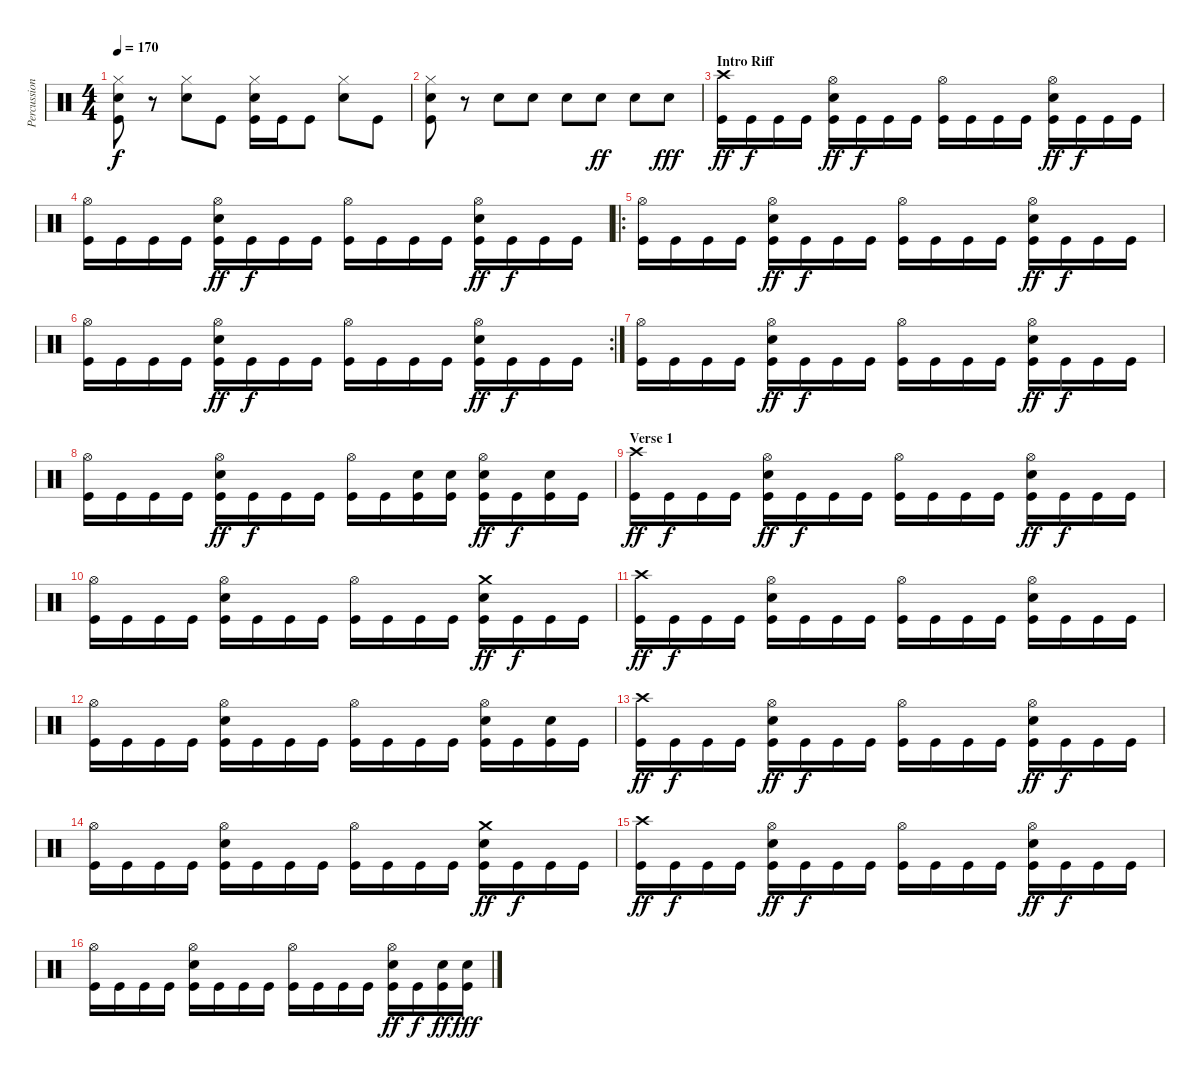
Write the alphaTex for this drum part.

\track ("Percussion" "Percussion") {instrument percussion}
\staff {score}
\articulation defaults
\ts (4 4)
\tempo 170
\clef neutral
\ks c
("Hi-Hat (closed)" "Snare (hit) 2" "Kick (hit)").8{dy f} r.8 ("Hi-Hat (closed)" "Snare (hit) 2").8 "Kick (hit)".8 ("Hi-Hat (closed)" "Snare (hit) 2" "Kick (hit)").16 "Kick (hit)".16 "Kick (hit)".8 ("Hi-Hat (closed)" "Snare (hit) 2").8 "Kick (hit)".8 |
("Hi-Hat (closed)" "Snare (hit) 2" "Kick (hit)").8 r.8 "Snare (hit) 2".8 "Snare (hit) 2".8 "Snare (hit) 2".8 "Snare (hit) 2".8{dy ff} "Snare (hit) 2".8 "Snare (hit) 2".8{dy fff} |
\section ("" "Intro Riff")
("Crash high (hit)" "Kick (hit)").16{dy ff} "Kick (hit)".16{dy f} "Kick (hit)".16 "Kick (hit)".16 ("Hi-Hat (open)" "Snare (hit) 2" "Kick (hit)").16{dy ff} "Kick (hit)".16{dy f} "Kick (hit)".16 "Kick (hit)".16 ("Hi-Hat (open)" "Kick (hit)").16 "Kick (hit)".16 "Kick (hit)".16 "Kick (hit)".16 ("Hi-Hat (open)" "Snare (hit) 2" "Kick (hit)").16{dy ff} "Kick (hit)".16{dy f} "Kick (hit)".16 "Kick (hit)".16 |
("Hi-Hat (open)" "Kick (hit)").16 "Kick (hit)".16 "Kick (hit)".16 "Kick (hit)".16 ("Hi-Hat (open)" "Snare (hit) 2" "Kick (hit)").16{dy ff} "Kick (hit)".16{dy f} "Kick (hit)".16 "Kick (hit)".16 ("Hi-Hat (open)" "Kick (hit)").16 "Kick (hit)".16 "Kick (hit)".16 "Kick (hit)".16 ("Hi-Hat (open)" "Snare (hit) 2" "Kick (hit)").16{dy ff} "Kick (hit)".16{dy f} "Kick (hit)".16 "Kick (hit)".16 |
\ro
("Hi-Hat (open)" "Kick (hit)").16 "Kick (hit)".16 "Kick (hit)".16 "Kick (hit)".16 ("Hi-Hat (open)" "Snare (hit) 2" "Kick (hit)").16{dy ff} "Kick (hit)".16{dy f} "Kick (hit)".16 "Kick (hit)".16 ("Hi-Hat (open)" "Kick (hit)").16 "Kick (hit)".16 "Kick (hit)".16 "Kick (hit)".16 ("Hi-Hat (open)" "Snare (hit) 2" "Kick (hit)").16{dy ff} "Kick (hit)".16{dy f} "Kick (hit)".16 "Kick (hit)".16 |
\rc 2
("Hi-Hat (open)" "Kick (hit)").16 "Kick (hit)".16 "Kick (hit)".16 "Kick (hit)".16 ("Hi-Hat (open)" "Snare (hit) 2" "Kick (hit)").16{dy ff} "Kick (hit)".16{dy f} "Kick (hit)".16 "Kick (hit)".16 ("Hi-Hat (open)" "Kick (hit)").16 "Kick (hit)".16 "Kick (hit)".16 "Kick (hit)".16 ("Hi-Hat (open)" "Snare (hit) 2" "Kick (hit)").16{dy ff} "Kick (hit)".16{dy f} "Kick (hit)".16 "Kick (hit)".16 |
("Hi-Hat (open)" "Kick (hit)").16 "Kick (hit)".16 "Kick (hit)".16 "Kick (hit)".16 ("Hi-Hat (open)" "Snare (hit) 2" "Kick (hit)").16{dy ff} "Kick (hit)".16{dy f} "Kick (hit)".16 "Kick (hit)".16 ("Hi-Hat (open)" "Kick (hit)").16 "Kick (hit)".16 "Kick (hit)".16 "Kick (hit)".16 ("Hi-Hat (open)" "Snare (hit) 2" "Kick (hit)").16{dy ff} "Kick (hit)".16{dy f} "Kick (hit)".16 "Kick (hit)".16 |
("Hi-Hat (open)" "Kick (hit)").16 "Kick (hit)".16 "Kick (hit)".16 "Kick (hit)".16 ("Hi-Hat (open)" "Snare (hit) 2" "Kick (hit)").16{dy ff} "Kick (hit)".16{dy f} "Kick (hit)".16 "Kick (hit)".16 ("Hi-Hat (open)" "Kick (hit)").16 "Kick (hit)".16 ("Snare (hit) 2" "Kick (hit)").16 ("Snare (hit) 2" "Kick (hit)").16 ("Hi-Hat (open)" "Snare (hit) 2" "Kick (hit)").16{dy ff} "Kick (hit)".16{dy f} ("Snare (hit) 2" "Kick (hit)").16 "Kick (hit)".16 |
\section ("" "Verse 1")
("Crash high (hit)" "Kick (hit)").16{dy ff} "Kick (hit)".16{dy f} "Kick (hit)".16 "Kick (hit)".16 ("Hi-Hat (open)" "Snare (hit) 2" "Kick (hit)").16{dy ff} "Kick (hit)".16{dy f} "Kick (hit)".16 "Kick (hit)".16 ("Hi-Hat (open)" "Kick (hit)").16 "Kick (hit)".16 "Kick (hit)".16 "Kick (hit)".16 ("Hi-Hat (open)" "Snare (hit) 2" "Kick (hit)").16{dy ff} "Kick (hit)".16{dy f} "Kick (hit)".16 "Kick (hit)".16 |
("Hi-Hat (open)" "Kick (hit)").16 "Kick (hit)".16 "Kick (hit)".16 "Kick (hit)".16 ("Hi-Hat (open)" "Snare (hit) 2" "Kick (hit)").16 "Kick (hit)".16 "Kick (hit)".16 "Kick (hit)".16 ("Hi-Hat (open)" "Kick (hit)").16 "Kick (hit)".16 "Kick (hit)".16 "Kick (hit)".16 ("Crash medium (hit)" "Snare (hit) 2" "Kick (hit)").16{dy ff} "Kick (hit)".16{dy f} "Kick (hit)".16 "Kick (hit)".16 |
("Crash high (hit)" "Kick (hit)").16{dy ff} "Kick (hit)".16{dy f} "Kick (hit)".16 "Kick (hit)".16 ("Hi-Hat (open)" "Snare (hit) 2" "Kick (hit)").16 "Kick (hit)".16 "Kick (hit)".16 "Kick (hit)".16 ("Hi-Hat (open)" "Kick (hit)").16 "Kick (hit)".16 "Kick (hit)".16 "Kick (hit)".16 ("Hi-Hat (open)" "Snare (hit) 2" "Kick (hit)").16 "Kick (hit)".16 "Kick (hit)".16 "Kick (hit)".16 |
("Hi-Hat (open)" "Kick (hit)").16 "Kick (hit)".16 "Kick (hit)".16 "Kick (hit)".16 ("Hi-Hat (open)" "Snare (hit) 2" "Kick (hit)").16 "Kick (hit)".16 "Kick (hit)".16 "Kick (hit)".16 ("Hi-Hat (open)" "Kick (hit)").16 "Kick (hit)".16 "Kick (hit)".16 "Kick (hit)".16 ("Hi-Hat (open)" "Snare (hit) 2" "Kick (hit)").16 "Kick (hit)".16 ("Snare (hit) 2" "Kick (hit)").16 "Kick (hit)".16 |
("Crash high (hit)" "Kick (hit)").16{dy ff} "Kick (hit)".16{dy f} "Kick (hit)".16 "Kick (hit)".16 ("Hi-Hat (open)" "Snare (hit) 2" "Kick (hit)").16{dy ff} "Kick (hit)".16{dy f} "Kick (hit)".16 "Kick (hit)".16 ("Hi-Hat (open)" "Kick (hit)").16 "Kick (hit)".16 "Kick (hit)".16 "Kick (hit)".16 ("Hi-Hat (open)" "Snare (hit) 2" "Kick (hit)").16{dy ff} "Kick (hit)".16{dy f} "Kick (hit)".16 "Kick (hit)".16 |
("Hi-Hat (open)" "Kick (hit)").16 "Kick (hit)".16 "Kick (hit)".16 "Kick (hit)".16 ("Hi-Hat (open)" "Snare (hit) 2" "Kick (hit)").16 "Kick (hit)".16 "Kick (hit)".16 "Kick (hit)".16 ("Hi-Hat (open)" "Kick (hit)").16 "Kick (hit)".16 "Kick (hit)".16 "Kick (hit)".16 ("Crash medium (hit)" "Snare (hit) 2" "Kick (hit)").16{dy ff} "Kick (hit)".16{dy f} "Kick (hit)".16 "Kick (hit)".16 |
("Crash high (hit)" "Kick (hit)").16{dy ff} "Kick (hit)".16{dy f} "Kick (hit)".16 "Kick (hit)".16 ("Hi-Hat (open)" "Snare (hit) 2" "Kick (hit)").16{dy ff} "Kick (hit)".16{dy f} "Kick (hit)".16 "Kick (hit)".16 ("Hi-Hat (open)" "Kick (hit)").16 "Kick (hit)".16 "Kick (hit)".16 "Kick (hit)".16 ("Hi-Hat (open)" "Snare (hit) 2" "Kick (hit)").16{dy ff} "Kick (hit)".16{dy f} "Kick (hit)".16 "Kick (hit)".16 |
("Hi-Hat (open)" "Kick (hit)").16 "Kick (hit)".16 "Kick (hit)".16 "Kick (hit)".16 ("Hi-Hat (open)" "Snare (hit) 2" "Kick (hit)").16 "Kick (hit)".16 "Kick (hit)".16 "Kick (hit)".16 ("Hi-Hat (open)" "Kick (hit)").16 "Kick (hit)".16 "Kick (hit)".16 "Kick (hit)".16 ("Hi-Hat (open)" "Snare (hit) 2" "Kick (hit)").16{dy ff} "Kick (hit)".16{dy f} ("Snare (hit) 2" "Kick (hit)").16{dy ff} ("Snare (hit) 2" "Kick (hit)").16{dy fff}
